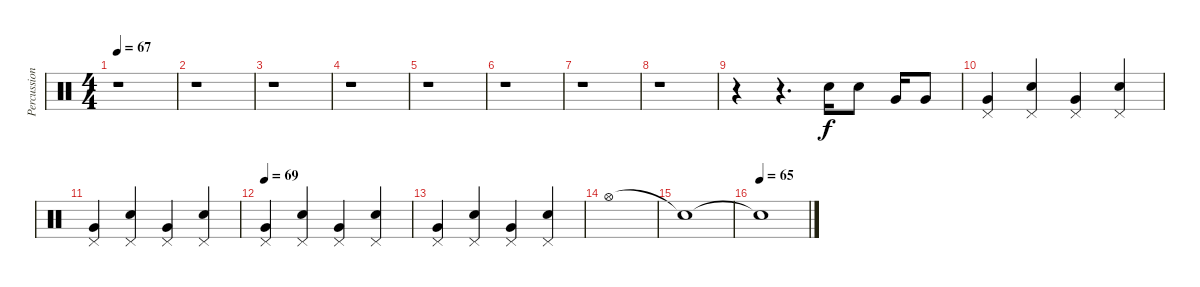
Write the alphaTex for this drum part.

\track ("Percussion" "Percussion") {instrument percussion}
\staff {score}
\articulation defaults
\ts (4 4)
\tempo 67
\clef neutral
\ks c
r.1{dy f} |
r.1 |
r.1 |
r.1 |
r.1 |
r.1 |
r.1 |
r.1 |
r.4 r.4{d} "Electric Snare (hit)".16 "Electric Snare (hit)".8 "Very Low Tom (hit)".16 "Very Low Tom (hit)".8 |
("Pedal Hi-Hat (hit)" "Very Low Tom (hit)").4 ("Pedal Hi-Hat (hit)" "Electric Snare (hit)").4 ("Pedal Hi-Hat (hit)" "Very Low Tom (hit)").4 ("Pedal Hi-Hat (hit)" "Electric Snare (hit)").4 |
("Pedal Hi-Hat (hit)" "Very Low Tom (hit)").4 ("Pedal Hi-Hat (hit)" "Electric Snare (hit)").4 ("Pedal Hi-Hat (hit)" "Very Low Tom (hit)").4 ("Pedal Hi-Hat (hit)" "Electric Snare (hit)").4 |
\tempo 69
("Pedal Hi-Hat (hit)" "Very Low Tom (hit)").4 ("Pedal Hi-Hat (hit)" "Electric Snare (hit)").4 ("Pedal Hi-Hat (hit)" "Very Low Tom (hit)").4 ("Pedal Hi-Hat (hit)" "Electric Snare (hit)").4 |
("Pedal Hi-Hat (hit)" "Very Low Tom (hit)").4 ("Pedal Hi-Hat (hit)" "Electric Snare (hit)").4 ("Pedal Hi-Hat (hit)" "Very Low Tom (hit)").4 ("Pedal Hi-Hat (hit)" "Electric Snare (hit)").4 |
"Hi-Hat (open)".1 |
"Snare (hit)"{t}.1 |
\tempo (65)
"Snare (hit)"{t}.1
